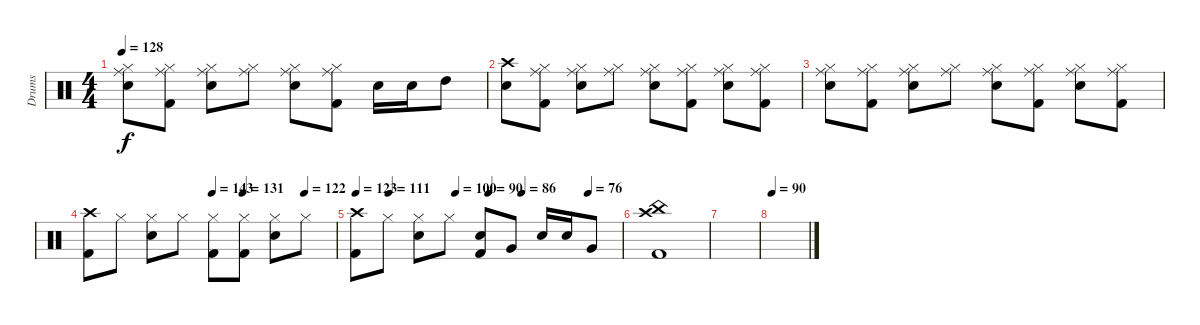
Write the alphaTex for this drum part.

\track ("Drums" "Drums") {instrument percussion}
\staff {score}
\articulation defaults
\ts (4 4)
\tempo 128
\clef neutral
\ks c
("Ride (middle)" "Hi-Hat (closed)" "Snare (hit) 2").8{dy f} ("Ride (middle)" "Hi-Hat (closed)" "Kick (hit) 2").8 ("Ride (middle)" "Hi-Hat (closed)" "Snare (hit) 2").8 ("Ride (middle)" "Hi-Hat (closed)").8 ("Ride (middle)" "Hi-Hat (closed)" "Snare (hit) 2").8 ("Ride (middle)" "Hi-Hat (closed)" "Kick (hit) 2").8 "Snare (hit) 2".16 "Snare (hit) 2".16 "High Tom (hit)".8 |
("Crash high (hit)" "Snare (hit) 2").8 ("Ride (middle)" "Hi-Hat (closed)" "Kick (hit) 2").8 ("Ride (middle)" "Hi-Hat (closed)" "Snare (hit) 2").8 ("Ride (middle)" "Hi-Hat (closed)").8 ("Ride (middle)" "Hi-Hat (closed)" "Snare (hit) 2").8 ("Ride (middle)" "Hi-Hat (closed)" "Kick (hit) 2").8 ("Ride (middle)" "Hi-Hat (closed)" "Snare (hit) 2").8 ("Ride (middle)" "Hi-Hat (closed)" "Kick (hit) 2").8 |
("Ride (middle)" "Hi-Hat (closed)" "Snare (hit) 2").8 ("Ride (middle)" "Hi-Hat (closed)" "Kick (hit) 2").8 ("Ride (middle)" "Hi-Hat (closed)" "Snare (hit) 2").8 ("Ride (middle)" "Hi-Hat (closed)").8 ("Ride (middle)" "Hi-Hat (closed)" "Snare (hit) 2").8 ("Ride (middle)" "Hi-Hat (closed)" "Kick (hit) 2").8 ("Ride (middle)" "Hi-Hat (closed)" "Snare (hit) 2").8 ("Ride (middle)" "Hi-Hat (closed)" "Kick (hit) 2").8 |
\tempo (143 0.5)
\tempo (131 0.625)
\tempo (122 0.875)
("Crash high (hit)" "Kick (hit) 2").8 "Hi-Hat (closed)".8 ("Hi-Hat (closed)" "Snare (hit) 2").8 "Hi-Hat (closed)".8 ("Hi-Hat (closed)" "Kick (hit) 2").8 ("Hi-Hat (closed)" "Kick (hit) 2").8 ("Hi-Hat (closed)" "Snare (hit) 2").8 "Hi-Hat (closed)".8 |
\tempo 123
\tempo (111 0.125)
\tempo (100 0.375)
\tempo (90 0.5)
\tempo (86 0.625)
\tempo (76 0.875)
("Crash high (hit)" "Kick (hit) 2").8 "Hi-Hat (closed)".8 ("Hi-Hat (closed)" "Snare (hit) 2").8 "Hi-Hat (closed)".8 ("Snare (hit) 2" "Kick (hit) 2").8 "Very Low Tom (hit)".8 "Snare (hit) 2".16 "Snare (hit) 2".16 "Very Low Tom (hit)".8 |
("Crash high (hit)" "China (hit)" "Kick (hit) 2").1 |
|
\tempo 90
